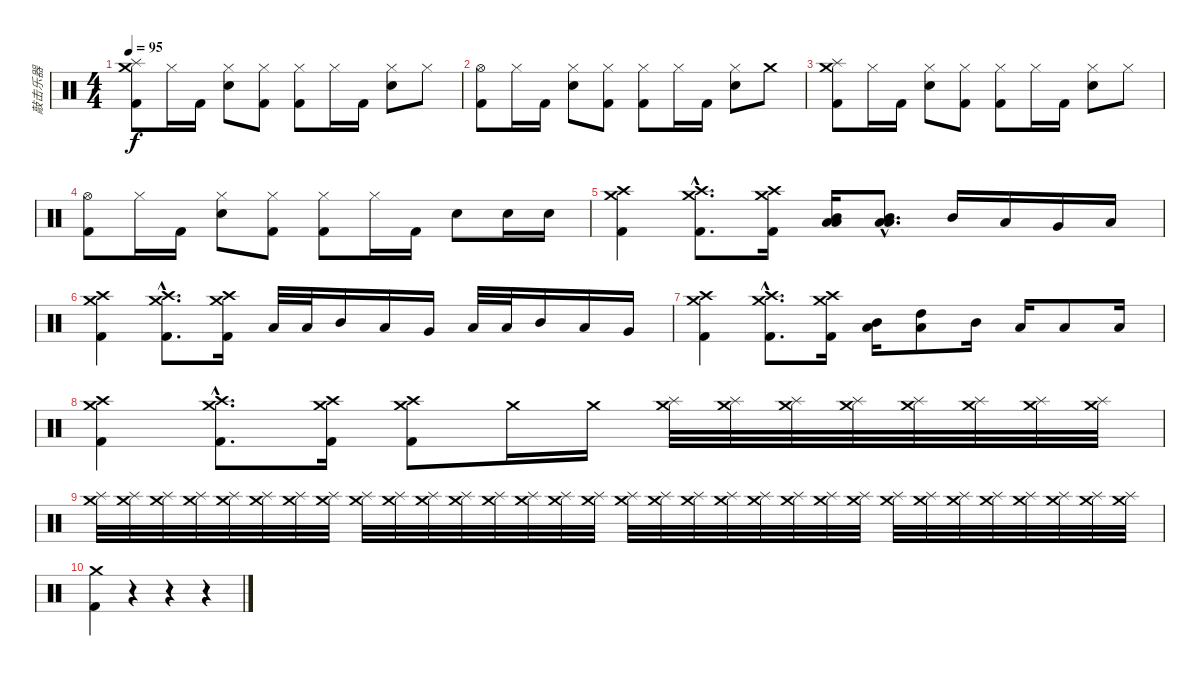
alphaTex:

\track ("敲击乐器" "敲击乐器") {instrument percussion}
\staff {score}
\articulation defaults
\ts (4 4)
\tempo 95
\clef neutral
\ks c
("Splash (hit)" "Crash medium (hit)" "Kick (hit) 2").8{dy f} "Hi-Hat (closed)".16 "Kick (hit) 2".16 ("Hi-Hat (closed)" "Electric Snare (hit)").8 ("Hi-Hat (closed)" "Kick (hit) 2").8 ("Hi-Hat (closed)" "Kick (hit) 2").8 "Hi-Hat (closed)".16 "Kick (hit) 2".16 ("Hi-Hat (closed)" "Electric Snare (hit)").8 "Hi-Hat (closed)".8 |
("Hi-Hat (open)" "Kick (hit) 2").8 "Hi-Hat (closed)".16 "Kick (hit) 2".16 ("Hi-Hat (closed)" "Electric Snare (hit)").8 ("Hi-Hat (closed)" "Kick (hit) 2").8 ("Hi-Hat (closed)" "Kick (hit) 2").8 "Hi-Hat (closed)".16 "Kick (hit) 2".16 ("Hi-Hat (closed)" "Electric Snare (hit)").8 "Crash medium (hit)".8 |
("Splash (hit)" "Crash medium (hit)" "Kick (hit) 2").8 "Hi-Hat (closed)".16 "Kick (hit) 2".16 ("Hi-Hat (closed)" "Electric Snare (hit)").8 ("Hi-Hat (closed)" "Kick (hit) 2").8 ("Hi-Hat (closed)" "Kick (hit) 2").8 "Hi-Hat (closed)".16 "Kick (hit) 2".16 ("Hi-Hat (closed)" "Electric Snare (hit)").8 "Hi-Hat (closed)".8 |
("Hi-Hat (open)" "Kick (hit) 2").8 "Hi-Hat (closed)".16 "Kick (hit) 2".16 ("Hi-Hat (closed)" "Electric Snare (hit)").8 ("Hi-Hat (closed)" "Kick (hit) 2").8 ("Hi-Hat (closed)" "Kick (hit) 2").8 "Hi-Hat (closed)".16 "Kick (hit) 2".16 "Electric Snare (hit)".8 "Electric Snare (hit)".16 "Electric Snare (hit)".16 |
("Crash high (hit)" "Crash medium (hit)" "Kick (hit) 2").4 ("Crash high (hit)"{hac} "Crash medium (hit)"{hac} "Kick (hit) 2"{hac}).8{d} ("Crash high (hit)" "Crash medium (hit)" "Kick (hit) 2").16 ("Low Tom (hit)" "Mid Tom (hit)" "Low Floor Tom (hit)").16 ("Mid Tom (hit)"{hac} "Low Tom (hit)"{hac} "Low Floor Tom (hit)"{hac}).8{d} "Mid Tom (hit)".16 "Low Tom (hit)".16 "Very Low Tom (hit)".16 "Low Floor Tom (hit)".16 |
("Crash high (hit)" "Crash medium (hit)" "Kick (hit) 2").4 ("Crash high (hit)"{hac} "Crash medium (hit)"{hac} "Kick (hit) 2"{hac}).8{d} ("Crash high (hit)" "Crash medium (hit)" "Kick (hit) 2").16 "Low Floor Tom (hit)".32 "Low Tom (hit)".32 "Mid Tom (hit)".16 "Low Tom (hit)".16 "Very Low Tom (hit)".16 "Low Floor Tom (hit)".32 "Low Tom (hit)".32 "Mid Tom (hit)".16 "Low Tom (hit)".16 "Very Low Tom (hit)".16 |
("Crash high (hit)" "Crash medium (hit)" "Kick (hit) 2").4 ("Crash high (hit)"{hac} "Crash medium (hit)"{hac} "Kick (hit) 2"{hac}).8{d} ("Crash high (hit)" "Crash medium (hit)" "Kick (hit) 2").16 ("Mid Tom (hit)" "Low Floor Tom (hit)").16 ("High Tom (hit)" "Low Floor Tom (hit)").8 "Mid Tom (hit)".16 "Low Tom (hit)".16 "Low Tom (hit)".8 "Low Floor Tom (hit)".16 |
("Crash medium (hit)" "Crash high (hit)" "Kick (hit) 2").4 ("Crash medium (hit)"{hac} "Crash high (hit)"{hac} "Kick (hit) 2"{hac}).8{d} ("Crash medium (hit)" "Crash high (hit)" "Kick (hit) 2").16 ("Crash medium (hit)" "Crash high (hit)" "Kick (hit) 2").8 "Crash medium (hit)".16 "Crash medium (hit)".16 ("Crash medium (hit)" "Splash (hit)").32 ("Crash medium (hit)" "Splash (hit)").32 ("Crash medium (hit)" "Splash (hit)").32 ("Crash medium (hit)" "Splash (hit)").32 ("Crash medium (hit)" "Splash (hit)").32 ("Crash medium (hit)" "Splash (hit)").32 ("Crash medium (hit)" "Splash (hit)").32 ("Crash medium (hit)" "Splash (hit)").32 |
("Crash medium (hit)" "Splash (hit)").32 ("Crash medium (hit)" "Splash (hit)").32 ("Crash medium (hit)" "Splash (hit)").32 ("Crash medium (hit)" "Splash (hit)").32 ("Crash medium (hit)" "Splash (hit)").32 ("Crash medium (hit)" "Splash (hit)").32 ("Crash medium (hit)" "Splash (hit)").32 ("Crash medium (hit)" "Splash (hit)").32 ("Crash medium (hit)" "Splash (hit)").32 ("Crash medium (hit)" "Splash (hit)").32 ("Crash medium (hit)" "Splash (hit)").32 ("Crash medium (hit)" "Splash (hit)").32 ("Crash medium (hit)" "Splash (hit)").32 ("Crash medium (hit)" "Splash (hit)").32 ("Crash medium (hit)" "Splash (hit)").32 ("Crash medium (hit)" "Splash (hit)").32 ("Crash medium (hit)" "Splash (hit)").32 ("Crash medium (hit)" "Splash (hit)").32 ("Crash medium (hit)" "Splash (hit)").32 ("Crash medium (hit)" "Splash (hit)").32 ("Crash medium (hit)" "Splash (hit)").32 ("Crash medium (hit)" "Splash (hit)").32 ("Crash medium (hit)" "Splash (hit)").32 ("Crash medium (hit)" "Splash (hit)").32 ("Crash medium (hit)" "Splash (hit)").32 ("Crash medium (hit)" "Splash (hit)").32 ("Crash medium (hit)" "Splash (hit)").32 ("Crash medium (hit)" "Splash (hit)").32 ("Crash medium (hit)" "Splash (hit)").32 ("Crash medium (hit)" "Splash (hit)").32 ("Crash medium (hit)" "Splash (hit)").32 ("Crash medium (hit)" "Splash (hit)").32 |
("Crash medium (hit)" "Kick (hit) 2").4 r.4 r.4 r.4
